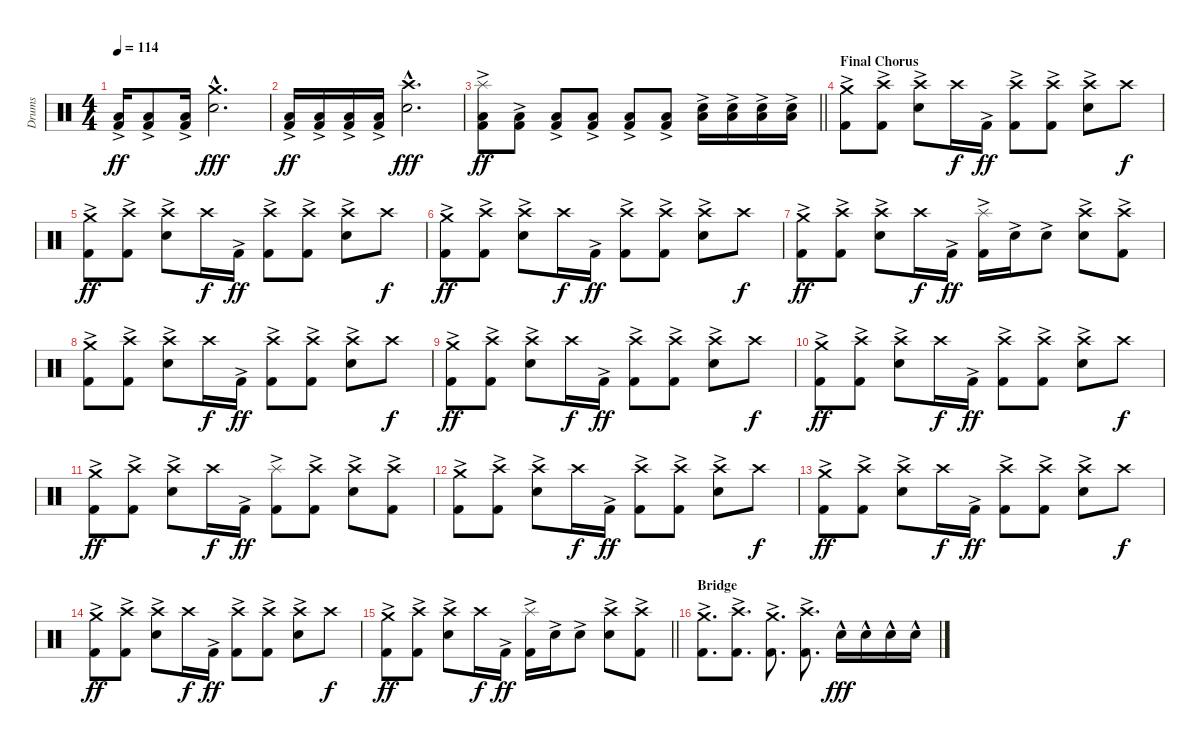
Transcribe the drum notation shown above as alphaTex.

\track ("Drums" "Drums") {instrument percussion}
\staff {score}
\articulation defaults
\ts (4 4)
\tempo 114
\clef neutral
\ks c
("Low Floor Tom (hit)"{ac} "Kick (hit) 2"{ac}).16{dy ff} ("Low Floor Tom (hit)"{ac} "Kick (hit) 2"{ac}).8 ("Low Floor Tom (hit)"{ac} "Kick (hit) 2"{ac}).16 ("Crash medium (hit)" "Electric Snare (hit)"{hac}).2{d dy fff} |
("Low Floor Tom (hit)"{ac} "Kick (hit) 2"{ac}).16{dy ff} ("Low Floor Tom (hit)"{ac} "Kick (hit) 2"{ac}).16 ("Low Floor Tom (hit)"{ac} "Kick (hit) 2"{ac}).16 ("Low Floor Tom (hit)"{ac} "Kick (hit) 2"{ac}).16 ("Crash high (hit)" "Electric Snare (hit)"{hac}).2{d dy fff} |
\barLineRight lightlight
("Splash (hit)" "Low Floor Tom (hit)"{ac} "Kick (hit) 2"{ac}).8{dy ff} ("Low Floor Tom (hit)"{ac} "Kick (hit) 2"{ac}).8 ("Low Floor Tom (hit)"{ac} "Kick (hit) 2"{ac}).8 ("Low Floor Tom (hit)"{ac} "Kick (hit) 2"{ac}).8 ("Low Floor Tom (hit)"{ac} "Kick (hit) 2"{ac}).8 ("Low Floor Tom (hit)"{ac} "Kick (hit) 2"{ac}).8 ("Electric Snare (hit)"{ac} "Low Floor Tom (hit)"{ac}).16 ("Electric Snare (hit)"{ac} "Low Floor Tom (hit)"{ac}).16 ("Electric Snare (hit)"{ac} "Low Floor Tom (hit)"{ac}).16 ("Electric Snare (hit)"{ac} "Low Floor Tom (hit)"{ac}).16 |
\section ("" "Final Chorus")
("Crash medium (hit)" "Kick (hit) 2"{ac}).8 ("Crash high (hit)" "Kick (hit) 2"{ac}).8 ("Crash high (hit)" "Electric Snare (hit)"{ac}).8 "Crash high (hit)".16{dy f} "Kick (hit) 2"{ac}.16{dy ff} ("Crash high (hit)" "Kick (hit) 2"{ac}).8 ("Crash high (hit)" "Kick (hit) 2"{ac}).8 ("Crash high (hit)" "Electric Snare (hit)"{ac}).8 "Crash high (hit)".8{dy f} |
("Crash medium (hit)" "Kick (hit) 2"{ac}).8{dy ff} ("Crash high (hit)" "Kick (hit) 2"{ac}).8 ("Crash high (hit)" "Electric Snare (hit)"{ac}).8 "Crash high (hit)".16{dy f} "Kick (hit) 2"{ac}.16{dy ff} ("Crash high (hit)" "Kick (hit) 2"{ac}).8 ("Crash high (hit)" "Kick (hit) 2"{ac}).8 ("Crash high (hit)" "Electric Snare (hit)"{ac}).8 "Crash high (hit)".8{dy f} |
("Crash medium (hit)" "Kick (hit) 2"{ac}).8{dy ff} ("Crash high (hit)" "Kick (hit) 2"{ac}).8 ("Crash high (hit)" "Electric Snare (hit)"{ac}).8 "Crash high (hit)".16{dy f} "Kick (hit) 2"{ac}.16{dy ff} ("Crash high (hit)" "Kick (hit) 2"{ac}).8 ("Crash high (hit)" "Kick (hit) 2"{ac}).8 ("Crash high (hit)" "Electric Snare (hit)"{ac}).8 "Crash high (hit)".8{dy f} |
("Crash medium (hit)" "Kick (hit) 2"{ac}).8{dy ff} ("Crash high (hit)" "Kick (hit) 2"{ac}).8 ("Crash high (hit)" "Electric Snare (hit)"{ac}).8 "Crash high (hit)".16{dy f} "Kick (hit) 2"{ac}.16{dy ff} ("Splash (hit)" "Kick (hit) 2"{ac}).16 "Electric Snare (hit)"{ac}.16 "Electric Snare (hit)"{ac}.8 ("Crash high (hit)" "Electric Snare (hit)"{ac}).8 ("Crash high (hit)" "Kick (hit) 2"{ac}).8 |
("Crash medium (hit)" "Kick (hit) 2"{ac}).8 ("Crash high (hit)" "Kick (hit) 2"{ac}).8 ("Crash high (hit)" "Electric Snare (hit)"{ac}).8 "Crash high (hit)".16{dy f} "Kick (hit) 2"{ac}.16{dy ff} ("Crash high (hit)" "Kick (hit) 2"{ac}).8 ("Crash high (hit)" "Kick (hit) 2"{ac}).8 ("Crash high (hit)" "Electric Snare (hit)"{ac}).8 "Crash high (hit)".8{dy f} |
("Crash medium (hit)" "Kick (hit) 2"{ac}).8{dy ff} ("Crash high (hit)" "Kick (hit) 2"{ac}).8 ("Crash high (hit)" "Electric Snare (hit)"{ac}).8 "Crash high (hit)".16{dy f} "Kick (hit) 2"{ac}.16{dy ff} ("Crash high (hit)" "Kick (hit) 2"{ac}).8 ("Crash high (hit)" "Kick (hit) 2"{ac}).8 ("Crash high (hit)" "Electric Snare (hit)"{ac}).8 "Crash high (hit)".8{dy f} |
("Crash medium (hit)" "Kick (hit) 2"{ac}).8{dy ff} ("Crash high (hit)" "Kick (hit) 2"{ac}).8 ("Crash high (hit)" "Electric Snare (hit)"{ac}).8 "Crash high (hit)".16{dy f} "Kick (hit) 2"{ac}.16{dy ff} ("Crash high (hit)" "Kick (hit) 2"{ac}).8 ("Crash high (hit)" "Kick (hit) 2"{ac}).8 ("Crash high (hit)" "Electric Snare (hit)"{ac}).8 "Crash high (hit)".8{dy f} |
("Crash medium (hit)" "Kick (hit) 2"{ac}).8{dy ff} ("Crash high (hit)" "Kick (hit) 2"{ac}).8 ("Crash high (hit)" "Electric Snare (hit)"{ac}).8 "Crash high (hit)".16{dy f} "Kick (hit) 2"{ac}.16{dy ff} ("Splash (hit)" "Kick (hit) 2"{ac}).8 ("Crash high (hit)" "Kick (hit) 2"{ac}).8 ("Crash high (hit)" "Electric Snare (hit)"{ac}).8 ("Crash high (hit)" "Kick (hit) 2"{ac}).8 |
("Crash medium (hit)" "Kick (hit) 2"{ac}).8 ("Crash high (hit)" "Kick (hit) 2"{ac}).8 ("Crash high (hit)" "Electric Snare (hit)"{ac}).8 "Crash high (hit)".16{dy f} "Kick (hit) 2"{ac}.16{dy ff} ("Crash high (hit)" "Kick (hit) 2"{ac}).8 ("Crash high (hit)" "Kick (hit) 2"{ac}).8 ("Crash high (hit)" "Electric Snare (hit)"{ac}).8 "Crash high (hit)".8{dy f} |
("Crash medium (hit)" "Kick (hit) 2"{ac}).8{dy ff} ("Crash high (hit)" "Kick (hit) 2"{ac}).8 ("Crash high (hit)" "Electric Snare (hit)"{ac}).8 "Crash high (hit)".16{dy f} "Kick (hit) 2"{ac}.16{dy ff} ("Crash high (hit)" "Kick (hit) 2"{ac}).8 ("Crash high (hit)" "Kick (hit) 2"{ac}).8 ("Crash high (hit)" "Electric Snare (hit)"{ac}).8 "Crash high (hit)".8{dy f} |
("Crash medium (hit)" "Kick (hit) 2"{ac}).8{dy ff} ("Crash high (hit)" "Kick (hit) 2"{ac}).8 ("Crash high (hit)" "Electric Snare (hit)"{ac}).8 "Crash high (hit)".16{dy f} "Kick (hit) 2"{ac}.16{dy ff} ("Crash high (hit)" "Kick (hit) 2"{ac}).8 ("Crash high (hit)" "Kick (hit) 2"{ac}).8 ("Crash high (hit)" "Electric Snare (hit)"{ac}).8 "Crash high (hit)".8{dy f} |
\barLineRight lightlight
("Crash medium (hit)" "Kick (hit) 2"{ac}).8{dy ff} ("Crash high (hit)" "Kick (hit) 2"{ac}).8 ("Crash high (hit)" "Electric Snare (hit)"{ac}).8 "Crash high (hit)".16{dy f} "Kick (hit) 2"{ac}.16{dy ff} ("Splash (hit)" "Kick (hit) 2"{ac}).16 "Electric Snare (hit)"{ac}.16 "Electric Snare (hit)"{ac}.8 ("Crash high (hit)" "Electric Snare (hit)"{ac}).8 ("Crash high (hit)" "Kick (hit) 2"{ac}).8 |
\section ("" "Bridge")
("Crash medium (hit)" "Kick (hit) 2"{ac}).8{d} ("Crash high (hit)" "Kick (hit) 2"{ac}).8{d} ("Crash medium (hit)" "Kick (hit) 2"{ac}).8{d} ("Crash high (hit)" "Kick (hit) 2"{ac}).8{d} "Electric Snare (hit)"{hac}.16{dy fff} "Electric Snare (hit)"{hac}.16 "Electric Snare (hit)"{hac}.16 "Electric Snare (hit)"{hac}.16
